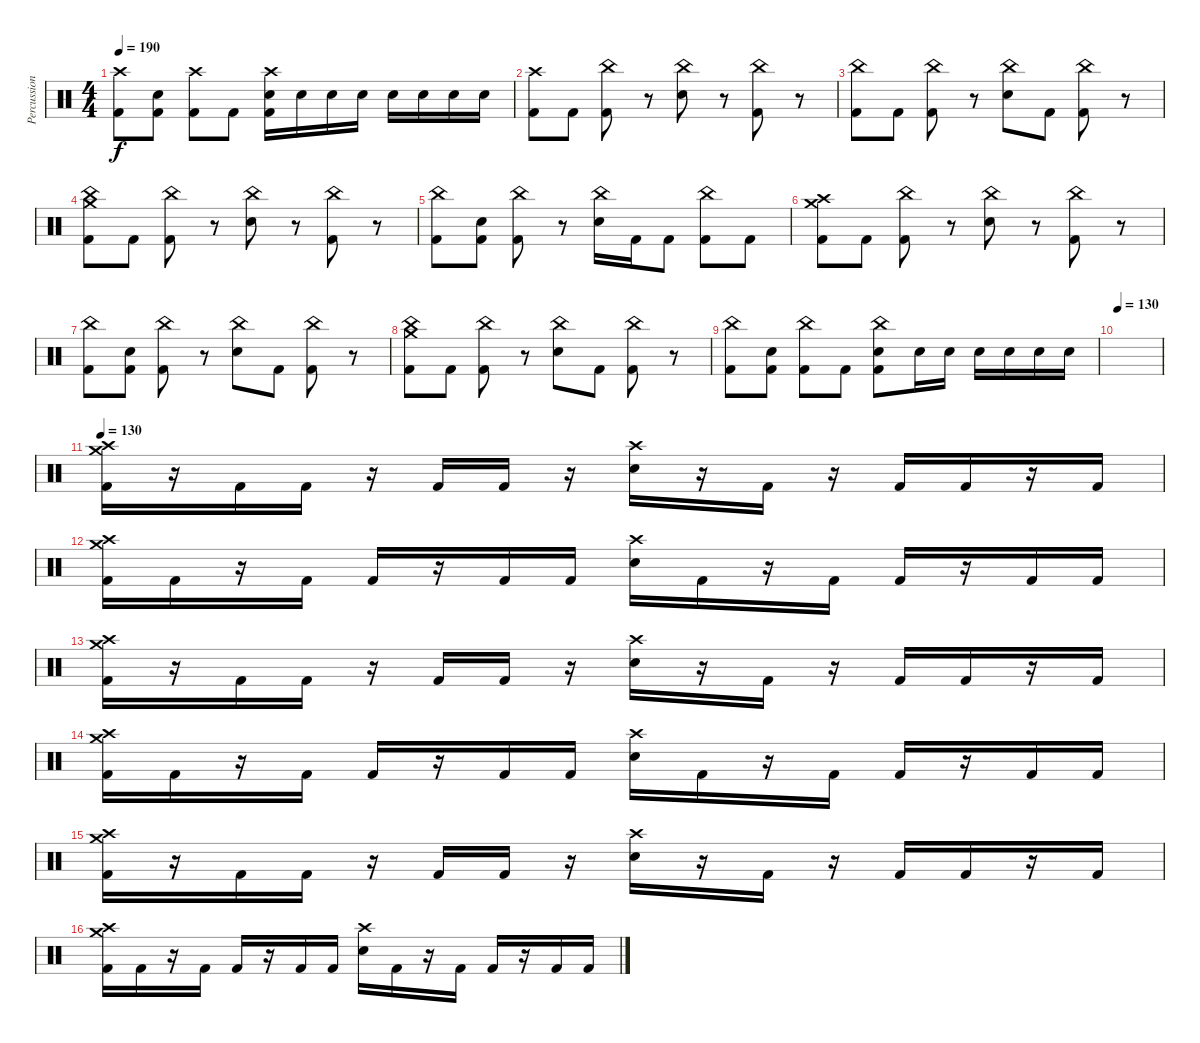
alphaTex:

\track ("Percussion" "Percussion") {instrument percussion}
\staff {score}
\articulation defaults
\ts (4 4)
\tempo 190
\clef neutral
\ks c
("Crash high (hit)" "Kick (hit) 2").8{dy f} ("Electric Snare (hit)" "Kick (hit) 2").8 ("Crash high (hit)" "Kick (hit) 2").8 "Kick (hit) 2".8 ("Crash high (hit)" "Electric Snare (hit)" "Kick (hit) 2").16 "Electric Snare (hit)".16 "Electric Snare (hit)".16 "Electric Snare (hit)".16 "Electric Snare (hit)".16 "Electric Snare (hit)".16 "Electric Snare (hit)".16 "Electric Snare (hit)".16 |
("Crash high (hit)" "Kick (hit) 2").8 "Kick (hit) 2".8 ("China (hit)" "Kick (hit) 2").8 r.8 ("China (hit)" "Electric Snare (hit)").8 r.8 ("China (hit)" "Kick (hit) 2").8 r.8 |
("China (hit)" "Kick (hit) 2").8 "Kick (hit) 2".8 ("China (hit)" "Kick (hit) 2").8 r.8 ("China (hit)" "Electric Snare (hit)").8 "Kick (hit) 2".8 ("China (hit)" "Kick (hit) 2").8 r.8 |
("China (hit)" "Crash medium (hit)" "Kick (hit) 2").8 "Kick (hit) 2".8 ("China (hit)" "Kick (hit) 2").8 r.8 ("China (hit)" "Electric Snare (hit)").8 r.8 ("China (hit)" "Kick (hit) 2").8 r.8 |
("China (hit)" "Kick (hit) 2").8 ("Electric Snare (hit)" "Kick (hit) 2").8 ("China (hit)" "Kick (hit) 2").8 r.8 ("China (hit)" "Electric Snare (hit)").16 "Kick (hit) 2".16 "Kick (hit) 2".8 ("China (hit)" "Kick (hit) 2").8 "Kick (hit) 2".8 |
("Crash high (hit)" "Crash medium (hit)" "Kick (hit) 2").8 "Kick (hit) 2".8 ("China (hit)" "Kick (hit) 2").8 r.8 ("China (hit)" "Electric Snare (hit)").8 r.8 ("China (hit)" "Kick (hit) 2").8 r.8 |
("China (hit)" "Kick (hit) 2").8 ("Electric Snare (hit)" "Kick (hit) 2").8 ("China (hit)" "Kick (hit) 2").8 r.8 ("China (hit)" "Electric Snare (hit)").8 "Kick (hit) 2".8 ("China (hit)" "Kick (hit) 2").8 r.8 |
("China (hit)" "Crash medium (hit)" "Kick (hit) 2").8 "Kick (hit) 2".8 ("China (hit)" "Kick (hit) 2").8 r.8 ("China (hit)" "Electric Snare (hit)").8 "Kick (hit) 2".8 ("China (hit)" "Kick (hit) 2").8 r.8 |
("China (hit)" "Kick (hit) 2").8 ("Electric Snare (hit)" "Kick (hit) 2").8 ("China (hit)" "Kick (hit) 2").8 "Kick (hit) 2".8 ("China (hit)" "Electric Snare (hit)" "Kick (hit) 2").8 "Electric Snare (hit)".16 "Electric Snare (hit)".16 "Electric Snare (hit)".16 "Electric Snare (hit)".16 "Electric Snare (hit)".16 "Electric Snare (hit)".16 |
\tempo 130
|
\tempo 120
\tempo 130
("Crash high (hit)" "Crash medium (hit)" "Kick (hit) 2").16 r.16 "Kick (hit) 2".16 "Kick (hit) 2".16 r.16 "Kick (hit) 2".16 "Kick (hit) 2".16 r.16 ("Crash high (hit)" "Electric Snare (hit)").16 r.16 "Kick (hit) 2".16 r.16 "Kick (hit) 2".16 "Kick (hit) 2".16 r.16 "Kick (hit) 2".16 |
("Crash high (hit)" "Crash medium (hit)" "Kick (hit) 2").16 "Kick (hit) 2".16 r.16 "Kick (hit) 2".16 "Kick (hit) 2".16 r.16 "Kick (hit) 2".16 "Kick (hit) 2".16 ("Crash high (hit)" "Electric Snare (hit)").16 "Kick (hit) 2".16 r.16 "Kick (hit) 2".16 "Kick (hit) 2".16 r.16 "Kick (hit) 2".16 "Kick (hit) 2".16 |
("Crash high (hit)" "Crash medium (hit)" "Kick (hit) 2").16 r.16 "Kick (hit) 2".16 "Kick (hit) 2".16 r.16 "Kick (hit) 2".16 "Kick (hit) 2".16 r.16 ("Crash high (hit)" "Electric Snare (hit)").16 r.16 "Kick (hit) 2".16 r.16 "Kick (hit) 2".16 "Kick (hit) 2".16 r.16 "Kick (hit) 2".16 |
("Crash high (hit)" "Crash medium (hit)" "Kick (hit) 2").16 "Kick (hit) 2".16 r.16 "Kick (hit) 2".16 "Kick (hit) 2".16 r.16 "Kick (hit) 2".16 "Kick (hit) 2".16 ("Crash high (hit)" "Electric Snare (hit)").16 "Kick (hit) 2".16 r.16 "Kick (hit) 2".16 "Kick (hit) 2".16 r.16 "Kick (hit) 2".16 "Kick (hit) 2".16 |
("Crash high (hit)" "Crash medium (hit)" "Kick (hit) 2").16 r.16 "Kick (hit) 2".16 "Kick (hit) 2".16 r.16 "Kick (hit) 2".16 "Kick (hit) 2".16 r.16 ("Crash high (hit)" "Electric Snare (hit)").16 r.16 "Kick (hit) 2".16 r.16 "Kick (hit) 2".16 "Kick (hit) 2".16 r.16 "Kick (hit) 2".16 |
("Crash high (hit)" "Crash medium (hit)" "Kick (hit) 2").16 "Kick (hit) 2".16 r.16 "Kick (hit) 2".16 "Kick (hit) 2".16 r.16 "Kick (hit) 2".16 "Kick (hit) 2".16 ("Crash high (hit)" "Electric Snare (hit)").16 "Kick (hit) 2".16 r.16 "Kick (hit) 2".16 "Kick (hit) 2".16 r.16 "Kick (hit) 2".16 "Kick (hit) 2".16
